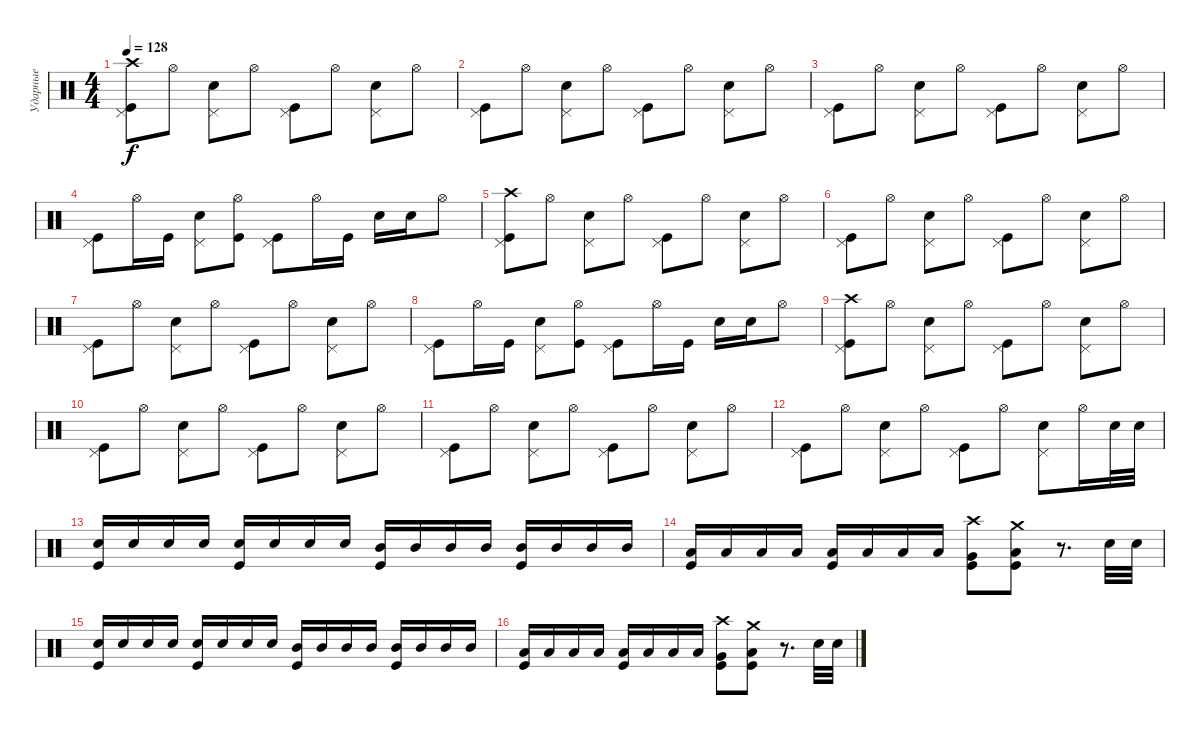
\track ("Ударные" "Ударные") {instrument percussion}
\staff {score}
\articulation defaults
\ts (4 4)
\tempo 128
\clef neutral
\ks c
("Kick (hit)" "Pedal Hi-Hat (hit)" "Crash high (hit)").8{dy f} "Hi-Hat (open)".8 ("Snare (hit) 2" "Pedal Hi-Hat (hit)").8 "Hi-Hat (open)".8 ("Kick (hit)" "Pedal Hi-Hat (hit)").8 "Hi-Hat (open)".8 ("Snare (hit) 2" "Pedal Hi-Hat (hit)").8 "Hi-Hat (open)".8 |
("Kick (hit)" "Pedal Hi-Hat (hit)").8 "Hi-Hat (open)".8 ("Snare (hit) 2" "Pedal Hi-Hat (hit)").8 "Hi-Hat (open)".8 ("Kick (hit)" "Pedal Hi-Hat (hit)").8 "Hi-Hat (open)".8 ("Snare (hit) 2" "Pedal Hi-Hat (hit)").8 "Hi-Hat (open)".8 |
("Kick (hit)" "Pedal Hi-Hat (hit)").8 "Hi-Hat (open)".8 ("Snare (hit) 2" "Pedal Hi-Hat (hit)").8 "Hi-Hat (open)".8 ("Kick (hit)" "Pedal Hi-Hat (hit)").8 "Hi-Hat (open)".8 ("Snare (hit) 2" "Pedal Hi-Hat (hit)").8 "Hi-Hat (open)".8 |
("Kick (hit)" "Pedal Hi-Hat (hit)").8 "Hi-Hat (open)".16 "Kick (hit)".16 ("Pedal Hi-Hat (hit)" "Snare (hit) 2").8 ("Kick (hit)" "Hi-Hat (open)").8 ("Kick (hit)" "Pedal Hi-Hat (hit)").8 "Hi-Hat (open)".16 "Kick (hit)".16 "Snare (hit) 2".16 "Snare (hit) 2".16 "Hi-Hat (open)".8 |
("Kick (hit)" "Pedal Hi-Hat (hit)" "Crash high (hit)").8 "Hi-Hat (open)".8 ("Snare (hit) 2" "Pedal Hi-Hat (hit)").8 "Hi-Hat (open)".8 ("Kick (hit)" "Pedal Hi-Hat (hit)").8 "Hi-Hat (open)".8 ("Snare (hit) 2" "Pedal Hi-Hat (hit)").8 "Hi-Hat (open)".8 |
("Kick (hit)" "Pedal Hi-Hat (hit)").8 "Hi-Hat (open)".8 ("Snare (hit) 2" "Pedal Hi-Hat (hit)").8 "Hi-Hat (open)".8 ("Kick (hit)" "Pedal Hi-Hat (hit)").8 "Hi-Hat (open)".8 ("Snare (hit) 2" "Pedal Hi-Hat (hit)").8 "Hi-Hat (open)".8 |
("Kick (hit)" "Pedal Hi-Hat (hit)").8 "Hi-Hat (open)".8 ("Snare (hit) 2" "Pedal Hi-Hat (hit)").8 "Hi-Hat (open)".8 ("Kick (hit)" "Pedal Hi-Hat (hit)").8 "Hi-Hat (open)".8 ("Snare (hit) 2" "Pedal Hi-Hat (hit)").8 "Hi-Hat (open)".8 |
("Kick (hit)" "Pedal Hi-Hat (hit)").8 "Hi-Hat (open)".16 "Kick (hit)".16 ("Pedal Hi-Hat (hit)" "Snare (hit) 2").8 ("Kick (hit)" "Hi-Hat (open)").8 ("Kick (hit)" "Pedal Hi-Hat (hit)").8 "Hi-Hat (open)".16 "Kick (hit)".16 "Snare (hit) 2".16 "Snare (hit) 2".16 "Hi-Hat (open)".8 |
("Kick (hit)" "Pedal Hi-Hat (hit)" "Crash high (hit)").8 "Hi-Hat (open)".8 ("Snare (hit) 2" "Pedal Hi-Hat (hit)").8 "Hi-Hat (open)".8 ("Kick (hit)" "Pedal Hi-Hat (hit)").8 "Hi-Hat (open)".8 ("Snare (hit) 2" "Pedal Hi-Hat (hit)").8 "Hi-Hat (open)".8 |
("Kick (hit)" "Pedal Hi-Hat (hit)").8 "Hi-Hat (open)".8 ("Snare (hit) 2" "Pedal Hi-Hat (hit)").8 "Hi-Hat (open)".8 ("Kick (hit)" "Pedal Hi-Hat (hit)").8 "Hi-Hat (open)".8 ("Snare (hit) 2" "Pedal Hi-Hat (hit)").8 "Hi-Hat (open)".8 |
("Kick (hit)" "Pedal Hi-Hat (hit)").8 "Hi-Hat (open)".8 ("Snare (hit) 2" "Pedal Hi-Hat (hit)").8 "Hi-Hat (open)".8 ("Kick (hit)" "Pedal Hi-Hat (hit)").8 "Hi-Hat (open)".8 ("Snare (hit) 2" "Pedal Hi-Hat (hit)").8 "Hi-Hat (open)".8 |
("Kick (hit)" "Pedal Hi-Hat (hit)").8 "Hi-Hat (open)".8 ("Snare (hit) 2" "Pedal Hi-Hat (hit)").8 "Hi-Hat (open)".8 ("Kick (hit)" "Pedal Hi-Hat (hit)").8 "Hi-Hat (open)".8 ("Snare (hit) 2" "Pedal Hi-Hat (hit)").8 "Hi-Hat (open)".16 "Snare (hit) 2".32 "Snare (hit) 2".32 |
("Snare (hit) 2" "Kick (hit)").16{bd 60} "Snare (hit) 2".16 "Snare (hit) 2".16 "Snare (hit) 2".16 ("Snare (hit) 2" "Kick (hit)").16{bd 60} "Snare (hit) 2".16 "Snare (hit) 2".16 "Snare (hit) 2".16 ("Mid Tom (hit)" "Kick (hit)").16{bd 60} "Mid Tom (hit)".16 "Mid Tom (hit)".16 "Mid Tom (hit)".16 ("Mid Tom (hit)" "Kick (hit)").16{bd 60} "Mid Tom (hit)".16 "Mid Tom (hit)".16 "Mid Tom (hit)".16 |
("Low Tom (hit)" "Kick (hit)").16{bd 60} "Low Tom (hit)".16 "Low Tom (hit)".16 "Low Tom (hit)".16 ("Low Tom (hit)" "Kick (hit)").16{bd 60} "Low Tom (hit)".16 "Low Tom (hit)".16 "Low Tom (hit)".16 ("Kick (hit)" "Very Low Tom (hit)" "Crash high (hit)").8{bu 60} ("Kick (hit)" "Low Floor Tom (hit)" "Crash medium (hit)").8{bu 60} r.8{d} "Snare (hit) 2".32 "Snare (hit) 2".32 |
("Snare (hit) 2" "Kick (hit)").16{bd 60} "Snare (hit) 2".16 "Snare (hit) 2".16 "Snare (hit) 2".16 ("Snare (hit) 2" "Kick (hit)").16{bd 60} "Snare (hit) 2".16 "Snare (hit) 2".16 "Snare (hit) 2".16 ("Mid Tom (hit)" "Kick (hit)").16{bd 60} "Mid Tom (hit)".16 "Mid Tom (hit)".16 "Mid Tom (hit)".16 ("Mid Tom (hit)" "Kick (hit)").16{bd 60} "Mid Tom (hit)".16 "Mid Tom (hit)".16 "Mid Tom (hit)".16 |
("Low Tom (hit)" "Kick (hit)").16{bd 60} "Low Tom (hit)".16 "Low Tom (hit)".16 "Low Tom (hit)".16 ("Low Tom (hit)" "Kick (hit)").16{bd 60} "Low Tom (hit)".16 "Low Tom (hit)".16 "Low Tom (hit)".16 ("Kick (hit)" "Very Low Tom (hit)" "Crash high (hit)").8{bu 60} ("Kick (hit)" "Low Floor Tom (hit)" "Crash medium (hit)").8{bu 60} r.8{d} "Snare (hit) 2".32 "Snare (hit) 2".32
